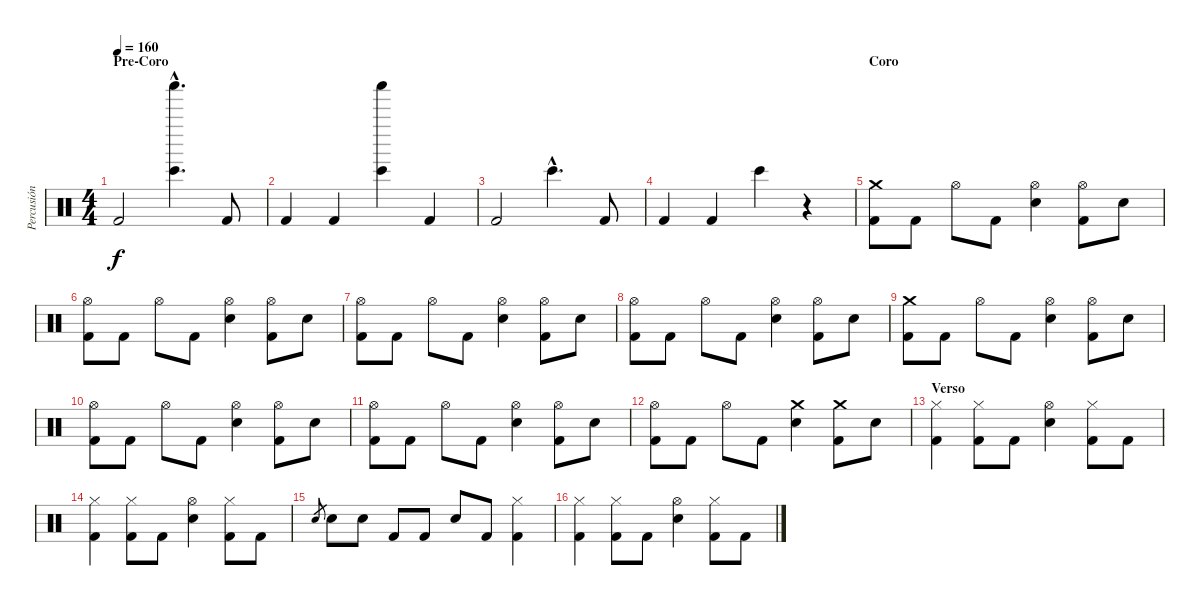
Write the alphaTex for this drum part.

\track ("Percusión" "Percusión") {instrument percussion}
\staff {score}
\articulation defaults
\ts (4 4)
\section ("" "Pre-Coro")
\tempo 160
\clef neutral
\ks c "Kick (hit) 2".2{dy f}
("Shaker (hit)"{hac} "Bongo High (hit)"{hac}).4{d} "Kick (hit) 2".8 |
"Kick (hit) 2".4 "Kick (hit) 2".4 ("Shaker (hit)" "Bongo High (hit)").4 "Kick (hit) 2".4 |
"Kick (hit) 2".2 "Bongo High (hit)"{hac}.4{d} "Kick (hit) 2".8 |
"Kick (hit) 2".4 "Kick (hit) 2".4 "Bongo High (hit)".4 r.4 |
\section ("" "Coro")
("Crash medium (hit)" "Kick (hit) 2").8 "Kick (hit) 2".8 "Hi-Hat (open)".8 "Kick (hit) 2".8 ("Hi-Hat (open)" "Snare (hit) 2").4 ("Hi-Hat (open)" "Kick (hit) 2").8 "Snare (hit) 2".8 |
("Hi-Hat (open)" "Kick (hit) 2").8 "Kick (hit) 2".8 "Hi-Hat (open)".8 "Kick (hit) 2".8 ("Hi-Hat (open)" "Snare (hit) 2").4 ("Hi-Hat (open)" "Kick (hit) 2").8 "Snare (hit) 2".8 |
("Hi-Hat (open)" "Kick (hit) 2").8 "Kick (hit) 2".8 "Hi-Hat (open)".8 "Kick (hit) 2".8 ("Hi-Hat (open)" "Snare (hit) 2").4 ("Hi-Hat (open)" "Kick (hit) 2").8 "Snare (hit) 2".8 |
("Hi-Hat (open)" "Kick (hit) 2").8 "Kick (hit) 2".8 "Hi-Hat (open)".8 "Kick (hit) 2".8 ("Hi-Hat (open)" "Snare (hit) 2").4 ("Hi-Hat (open)" "Kick (hit) 2").8 "Snare (hit) 2".8 |
("Crash medium (hit)" "Kick (hit) 2").8 "Kick (hit) 2".8 "Hi-Hat (open)".8 "Kick (hit) 2".8 ("Hi-Hat (open)" "Snare (hit) 2").4 ("Hi-Hat (open)" "Kick (hit) 2").8 "Snare (hit) 2".8 |
("Hi-Hat (open)" "Kick (hit) 2").8 "Kick (hit) 2".8 "Hi-Hat (open)".8 "Kick (hit) 2".8 ("Hi-Hat (open)" "Snare (hit) 2").4 ("Hi-Hat (open)" "Kick (hit) 2").8 "Snare (hit) 2".8 |
("Hi-Hat (open)" "Kick (hit) 2").8 "Kick (hit) 2".8 "Hi-Hat (open)".8 "Kick (hit) 2".8 ("Hi-Hat (open)" "Snare (hit) 2").4 ("Hi-Hat (open)" "Kick (hit) 2").8 "Snare (hit) 2".8 |
("Hi-Hat (open)" "Kick (hit) 2").8 "Kick (hit) 2".8 "Hi-Hat (open)".8 "Kick (hit) 2".8 ("Crash medium (hit)" "Snare (hit) 2").4 ("Crash medium (hit)" "Kick (hit) 2").8 "Snare (hit) 2".8 |
\section ("" "Verso")
("Hi-Hat (closed)" "Kick (hit) 2").4 ("Hi-Hat (closed)" "Kick (hit) 2").8 "Kick (hit) 2".8 ("Hi-Hat (open)" "Snare (hit) 2").4 ("Hi-Hat (closed)" "Kick (hit) 2").8 "Kick (hit) 2".8 |
("Hi-Hat (closed)" "Kick (hit) 2").4 ("Hi-Hat (closed)" "Kick (hit) 2").8 "Kick (hit) 2".8 ("Hi-Hat (open)" "Snare (hit) 2").4 ("Hi-Hat (closed)" "Kick (hit) 2").8 "Kick (hit) 2".8 |
"Snare (hit) 2".8{gr} "Snare (hit) 2".8 "Snare (hit) 2".8 "Kick (hit) 2".8 "Kick (hit) 2".8 "Snare (hit) 2".8 "Kick (hit) 2".8 ("Hi-Hat (closed)" "Kick (hit) 2").4 |
("Hi-Hat (closed)" "Kick (hit) 2").4 ("Hi-Hat (closed)" "Kick (hit) 2").8 "Kick (hit) 2".8 ("Hi-Hat (open)" "Snare (hit) 2").4 ("Hi-Hat (closed)" "Kick (hit) 2").8 "Kick (hit) 2".8
